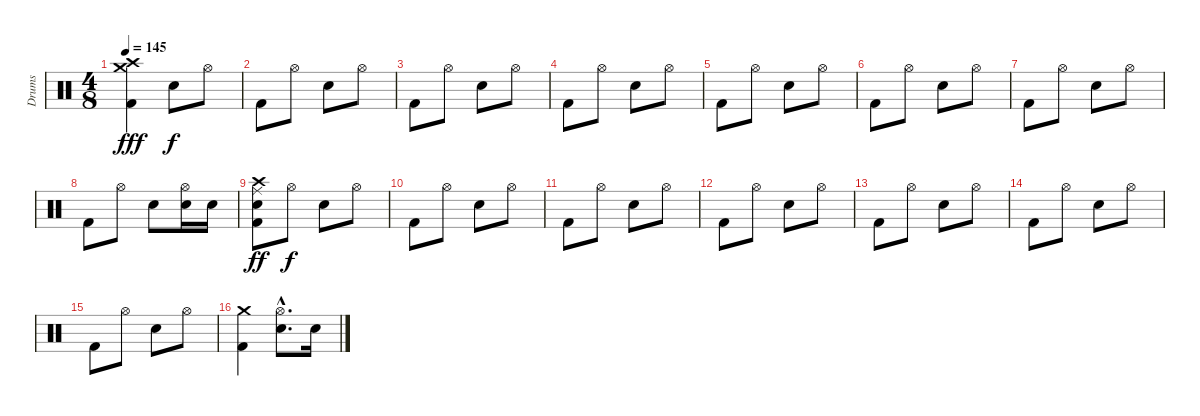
\track ("Drums" "Drums") {instrument percussion}
\staff {score}
\articulation defaults
\ts (4 8)
\tempo 145
\clef neutral
\ks c
("Crash medium (hit)" "Crash high (hit)" "Kick (hit) 2").4{dy fff} "Snare (hit) 2".8{dy f} "Hi-Hat (open)".8 |
"Kick (hit) 2".8 "Hi-Hat (open)".8 "Snare (hit) 2".8 "Hi-Hat (open)".8 |
"Kick (hit) 2".8 "Hi-Hat (open)".8 "Snare (hit) 2".8 "Hi-Hat (open)".8 |
"Kick (hit) 2".8 "Hi-Hat (open)".8 "Snare (hit) 2".8 "Hi-Hat (open)".8 |
"Kick (hit) 2".8 "Hi-Hat (open)".8 "Snare (hit) 2".8 "Hi-Hat (open)".8 |
"Kick (hit) 2".8 "Hi-Hat (open)".8 "Snare (hit) 2".8 "Hi-Hat (open)".8 |
"Kick (hit) 2".8 "Hi-Hat (open)".8 "Snare (hit) 2".8 "Hi-Hat (open)".8 |
"Kick (hit) 2".8 "Hi-Hat (open)".8 "Snare (hit) 2".8 ("Hi-Hat (open)" "Snare (hit) 2").16 "Snare (hit) 2".16 |
("Crash high (hit)" "Ride (middle)" "Snare (hit) 2" "Kick (hit) 2").8{dy ff} "Hi-Hat (open)".8{dy f} "Snare (hit) 2".8 "Hi-Hat (open)".8 |
"Kick (hit) 2".8 "Hi-Hat (open)".8 "Snare (hit) 2".8 "Hi-Hat (open)".8 |
"Kick (hit) 2".8 "Hi-Hat (open)".8 "Snare (hit) 2".8 "Hi-Hat (open)".8 |
"Kick (hit) 2".8 "Hi-Hat (open)".8 "Snare (hit) 2".8 "Hi-Hat (open)".8 |
"Kick (hit) 2".8 "Hi-Hat (open)".8 "Snare (hit) 2".8 "Hi-Hat (open)".8 |
"Kick (hit) 2".8 "Hi-Hat (open)".8 "Snare (hit) 2".8 "Hi-Hat (open)".8 |
"Kick (hit) 2".8 "Hi-Hat (open)".8 "Snare (hit) 2".8 "Hi-Hat (open)".8 |
("Crash medium (hit)" "Kick (hit) 2").4 ("Hi-Hat (open)"{hac} "Snare (hit) 2"{hac}).8{d} "Snare (hit) 2".16
